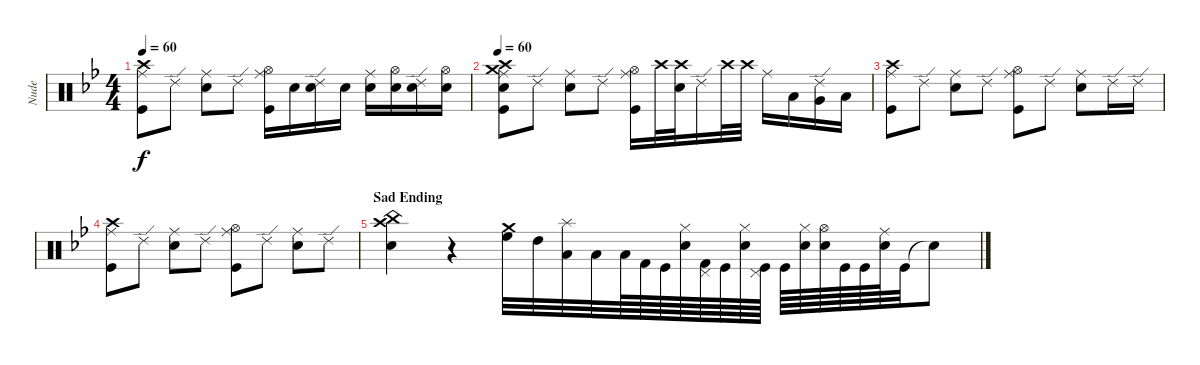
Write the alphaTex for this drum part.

\track ("Nude" "Nude") {instrument percussion}
\staff {score}
\articulation defaults
\ts (4 4)
\tempo 60
\clef neutral
\ks gminor
("Ride (middle)" "Crash high (hit)" "Kick (hit)").8{dy f} "Ride (edge) 2".8 ("Ride (middle)" "Electric Snare (hit)").8 "Ride (edge) 2".8 ("Ride (middle)" "Hi-Hat (open)" "Kick (hit)").16 "Snare (hit) 2".16 ("Ride (edge) 2" "Electric Snare (hit)").16 "Snare (hit) 2".16 ("Ride (middle)" "Electric Snare (hit)").16 ("Hi-Hat (open)" "Snare (hit) 2").16 ("Ride (edge) 2" "Electric Snare (hit)").16 ("Hi-Hat (open)" "Snare (hit) 2").16 |
\tempo 60
("Ride (middle)" "Crash medium (hit)" "Electric Snare (hit)" "Crash high (hit)" "Kick (hit)").8 "Ride (edge) 2".8 ("Ride (middle)" "Electric Snare (hit)").8 "Ride (edge) 2".8 ("Ride (middle)" "Hi-Hat (open)" "Kick (hit)").16 "Crash high (hit)".32 ("Crash high (hit)" "Electric Snare (hit)").32 "Ride (edge) 2".16 "Crash high (hit)".32 "Crash high (hit)".32 "Ride (middle)".16 "Low Floor Tom (hit)".16 ("Ride (edge) 2" "Very Low Tom (hit)").16 "Low Tom (hit)".16 |
("Ride (middle)" "Crash high (hit)" "Kick (hit)").8 "Ride (edge) 2".8 ("Ride (middle)" "Electric Snare (hit)").8 "Ride (edge) 2".8 ("Ride (middle)" "Hi-Hat (open)" "Kick (hit)").8 "Ride (edge) 2".8 ("Ride (middle)" "Electric Snare (hit)").8 "Ride (edge) 2".16 "Ride (edge) 2".16 |
("Ride (middle)" "Crash high (hit)" "Kick (hit)").8 "Ride (edge) 2".8 ("Ride (middle)" "Electric Snare (hit)").8 "Ride (edge) 2".8 ("Ride (middle)" "Hi-Hat (open)" "Kick (hit)").8 "Ride (edge) 2".8 ("Ride (middle)" "Electric Snare (hit)").8 "Ride (edge) 2".8 |
\section ("" "Sad Ending")
("Crash high (hit)" "China (hit)" "Snare (hit) 2").4 r.4 ("High Floor Tom (hit)" "Crash medium (hit)").32 "High Tom (hit)".32 ("Low Tom (hit)" "Splash (hit)").32 "Low Floor Tom (hit)".32 "Low Tom (hit)".64 "Kick (hit) 2".64 "Kick (hit)".64 ("Snare (hit) 2" "Hi-Hat (closed)").64 ("Kick (hit) 2" "Pedal Hi-Hat (hit)").64 "Kick (hit)".64 ("Snare (hit) 2" "Hi-Hat (closed)").64 ("Kick (hit)" "Pedal Hi-Hat (hit)").64 "Kick (hit)".64 ("Snare (hit) 2" "Hi-Hat (closed)").64 ("Snare (hit) 2" "Hi-Hat (open)").64 "Kick (hit)".64 "Kick (hit)".64 ("Snare (hit) 2" "Ride (middle)").64 "Kick (hit)".32 "Snare (hit)"{t}.8
